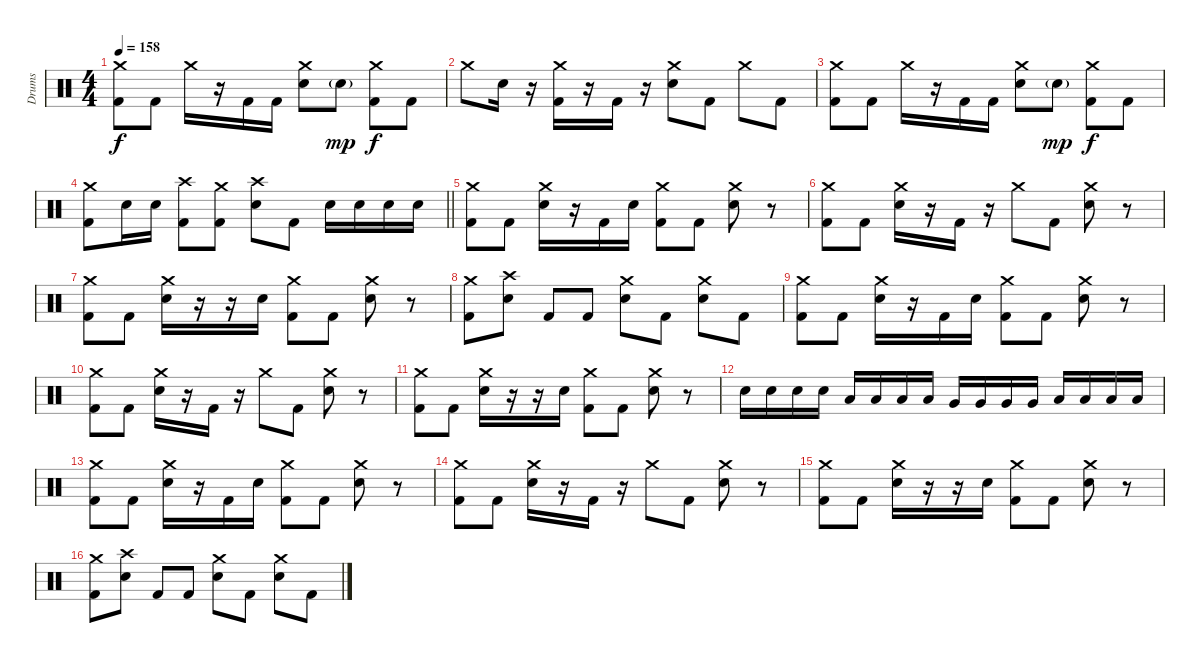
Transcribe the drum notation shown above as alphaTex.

\track ("Drums" "Drums") {instrument percussion}
\staff {score}
\articulation defaults
\ts (4 4)
\tempo 158
\clef neutral
\ks c
("Crash medium (hit)" "Kick (hit) 2").8{dy f} "Kick (hit) 2".8 "Crash medium (hit)".16 r.16 "Kick (hit) 2".16 "Kick (hit) 2".16 ("Crash medium (hit)" "Snare (hit) 2").8 "Snare (hit) 2"{g}.8{dy mp} ("Crash medium (hit)" "Kick (hit) 2").8{dy f} "Kick (hit) 2".8 |
"Crash medium (hit)".8 "Snare (hit) 2".16 r.16 ("Crash medium (hit)" "Kick (hit) 2").16 r.16 "Kick (hit) 2".16 r.16 ("Crash medium (hit)" "Snare (hit) 2").8 "Kick (hit) 2".8 "Crash medium (hit)".8 "Kick (hit) 2".8 |
("Crash medium (hit)" "Kick (hit) 2").8 "Kick (hit) 2".8 "Crash medium (hit)".16 r.16 "Kick (hit) 2".16 "Kick (hit) 2".16 ("Crash medium (hit)" "Snare (hit) 2").8 "Snare (hit) 2"{g}.8{dy mp} ("Crash medium (hit)" "Kick (hit) 2").8{dy f} "Kick (hit) 2".8 |
\barLineRight lightlight
("Crash medium (hit)" "Kick (hit) 2").8 "Snare (hit) 2".16 "Snare (hit) 2".16 ("Crash high (hit)" "Kick (hit) 2").8 ("Crash medium (hit)" "Kick (hit) 2").8 ("Crash high (hit)" "Snare (hit) 2").8 "Kick (hit) 2".8 "Snare (hit) 2".16 "Snare (hit) 2".16 "Snare (hit) 2".16 "Snare (hit) 2".16 |
("Crash medium (hit)" "Kick (hit) 2").8 "Kick (hit) 2".8 ("Crash medium (hit)" "Snare (hit) 2").16 r.16 "Kick (hit) 2".16 "Snare (hit) 2".16 ("Crash medium (hit)" "Kick (hit) 2").8 "Kick (hit) 2".8 ("Crash medium (hit)" "Snare (hit) 2").8 r.8 |
("Crash medium (hit)" "Kick (hit) 2").8 "Kick (hit) 2".8 ("Crash medium (hit)" "Snare (hit) 2").16 r.16 "Kick (hit) 2".16 r.16 "Crash medium (hit)".8 "Kick (hit) 2".8 ("Crash medium (hit)" "Snare (hit) 2").8 r.8 |
("Crash medium (hit)" "Kick (hit) 2").8 "Kick (hit) 2".8 ("Crash medium (hit)" "Snare (hit) 2").16 r.16 r.16 "Snare (hit) 2".16 ("Crash medium (hit)" "Kick (hit) 2").8 "Kick (hit) 2".8 ("Crash medium (hit)" "Snare (hit) 2").8 r.8 |
("Crash medium (hit)" "Kick (hit) 2").8 ("Crash high (hit)" "Snare (hit) 2").8 "Kick (hit) 2".8 "Kick (hit) 2".8 ("Crash medium (hit)" "Snare (hit) 2").8 "Kick (hit) 2".8 ("Crash medium (hit)" "Snare (hit) 2").8 "Kick (hit) 2".8 |
("Crash medium (hit)" "Kick (hit) 2").8 "Kick (hit) 2".8 ("Crash medium (hit)" "Snare (hit) 2").16 r.16 "Kick (hit) 2".16 "Snare (hit) 2".16 ("Crash medium (hit)" "Kick (hit) 2").8 "Kick (hit) 2".8 ("Crash medium (hit)" "Snare (hit) 2").8 r.8 |
("Crash medium (hit)" "Kick (hit) 2").8 "Kick (hit) 2".8 ("Crash medium (hit)" "Snare (hit) 2").16 r.16 "Kick (hit) 2".16 r.16 "Crash medium (hit)".8 "Kick (hit) 2".8 ("Crash medium (hit)" "Snare (hit) 2").8 r.8 |
("Crash medium (hit)" "Kick (hit) 2").8 "Kick (hit) 2".8 ("Crash medium (hit)" "Snare (hit) 2").16 r.16 r.16 "Snare (hit) 2".16 ("Crash medium (hit)" "Kick (hit) 2").8 "Kick (hit) 2".8 ("Crash medium (hit)" "Snare (hit) 2").8 r.8 |
"Snare (hit) 2".16 "Snare (hit) 2".16 "Snare (hit) 2".16 "Snare (hit) 2".16 "Low Tom (hit)".16 "Low Tom (hit)".16 "Low Tom (hit)".16 "Low Tom (hit)".16 "Very Low Tom (hit)".16 "Very Low Tom (hit)".16 "Very Low Tom (hit)".16 "Very Low Tom (hit)".16 "Low Floor Tom (hit)".16 "Low Floor Tom (hit)".16 "Low Floor Tom (hit)".16 "Low Floor Tom (hit)".16 |
("Crash medium (hit)" "Kick (hit) 2").8 "Kick (hit) 2".8 ("Crash medium (hit)" "Snare (hit) 2").16 r.16 "Kick (hit) 2".16 "Snare (hit) 2".16 ("Crash medium (hit)" "Kick (hit) 2").8 "Kick (hit) 2".8 ("Crash medium (hit)" "Snare (hit) 2").8 r.8 |
("Crash medium (hit)" "Kick (hit) 2").8 "Kick (hit) 2".8 ("Crash medium (hit)" "Snare (hit) 2").16 r.16 "Kick (hit) 2".16 r.16 "Crash medium (hit)".8 "Kick (hit) 2".8 ("Crash medium (hit)" "Snare (hit) 2").8 r.8 |
("Crash medium (hit)" "Kick (hit) 2").8 "Kick (hit) 2".8 ("Crash medium (hit)" "Snare (hit) 2").16 r.16 r.16 "Snare (hit) 2".16 ("Crash medium (hit)" "Kick (hit) 2").8 "Kick (hit) 2".8 ("Crash medium (hit)" "Snare (hit) 2").8 r.8 |
("Crash medium (hit)" "Kick (hit) 2").8 ("Crash high (hit)" "Snare (hit) 2").8 "Kick (hit) 2".8 "Kick (hit) 2".8 ("Crash medium (hit)" "Snare (hit) 2").8 "Kick (hit) 2".8 ("Crash medium (hit)" "Snare (hit) 2").8 "Kick (hit) 2".8
